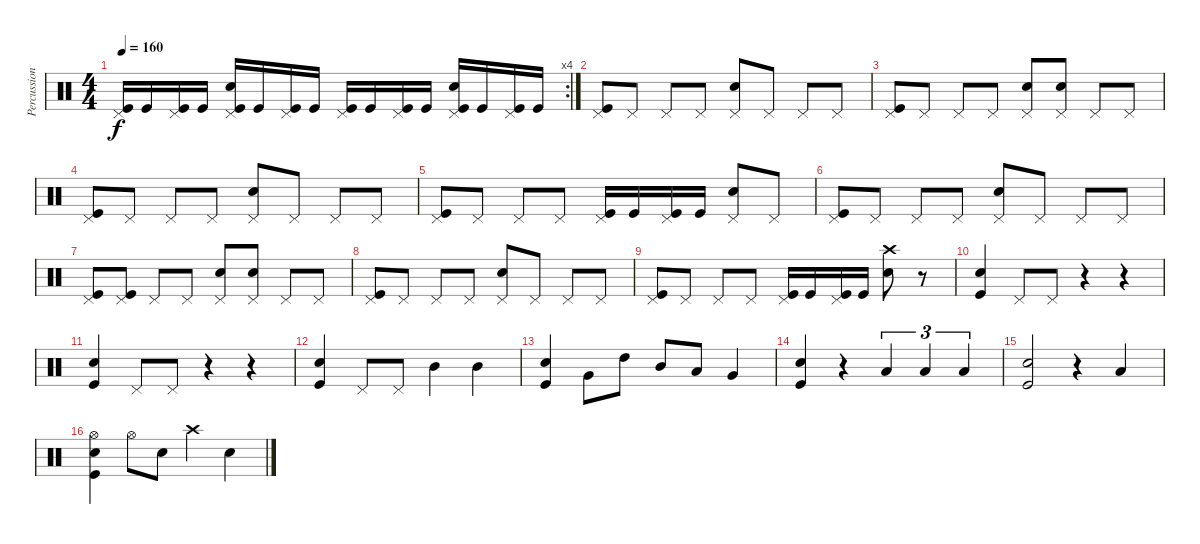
\track ("Percussion" "Percussion") {instrument percussion}
\staff {score}
\articulation defaults
\rc 4
\ts (4 4)
\tempo 160
\clef neutral
\ks c
("Pedal Hi-Hat (hit)" "Kick (hit)").16{dy f} "Kick (hit)".16 ("Pedal Hi-Hat (hit)" "Kick (hit)").16 "Kick (hit)".16 ("Pedal Hi-Hat (hit)" "Electric Snare (hit)" "Kick (hit)").16 "Kick (hit)".16 ("Pedal Hi-Hat (hit)" "Kick (hit)").16 "Kick (hit)".16 ("Pedal Hi-Hat (hit)" "Kick (hit)").16 "Kick (hit)".16 ("Pedal Hi-Hat (hit)" "Kick (hit)").16 "Kick (hit)".16 ("Pedal Hi-Hat (hit)" "Electric Snare (hit)" "Kick (hit)").16 "Kick (hit)".16 ("Pedal Hi-Hat (hit)" "Kick (hit)").16 "Kick (hit)".16 |
("Pedal Hi-Hat (hit)" "Kick (hit)").8 "Pedal Hi-Hat (hit)".8 "Pedal Hi-Hat (hit)".8 "Pedal Hi-Hat (hit)".8 ("Pedal Hi-Hat (hit)" "Electric Snare (hit)").8 "Pedal Hi-Hat (hit)".8 "Pedal Hi-Hat (hit)".8 "Pedal Hi-Hat (hit)".8 |
("Pedal Hi-Hat (hit)" "Kick (hit)").8 "Pedal Hi-Hat (hit)".8 "Pedal Hi-Hat (hit)".8 "Pedal Hi-Hat (hit)".8 ("Pedal Hi-Hat (hit)" "Electric Snare (hit)").8 ("Pedal Hi-Hat (hit)" "Electric Snare (hit)").8 "Pedal Hi-Hat (hit)".8 "Pedal Hi-Hat (hit)".8 |
("Pedal Hi-Hat (hit)" "Kick (hit)").8 "Pedal Hi-Hat (hit)".8 "Pedal Hi-Hat (hit)".8 "Pedal Hi-Hat (hit)".8 ("Pedal Hi-Hat (hit)" "Electric Snare (hit)").8 "Pedal Hi-Hat (hit)".8 "Pedal Hi-Hat (hit)".8 "Pedal Hi-Hat (hit)".8 |
("Pedal Hi-Hat (hit)" "Kick (hit)").8 "Pedal Hi-Hat (hit)".8 "Pedal Hi-Hat (hit)".8 "Pedal Hi-Hat (hit)".8 ("Pedal Hi-Hat (hit)" "Kick (hit)").16 "Kick (hit)".16 ("Pedal Hi-Hat (hit)" "Kick (hit)").16 "Kick (hit)".16 ("Pedal Hi-Hat (hit)" "Electric Snare (hit)").8 "Pedal Hi-Hat (hit)".8 |
("Pedal Hi-Hat (hit)" "Kick (hit)").8 "Pedal Hi-Hat (hit)".8 "Pedal Hi-Hat (hit)".8 "Pedal Hi-Hat (hit)".8 ("Pedal Hi-Hat (hit)" "Electric Snare (hit)").8 "Pedal Hi-Hat (hit)".8 "Pedal Hi-Hat (hit)".8 "Pedal Hi-Hat (hit)".8 |
("Pedal Hi-Hat (hit)" "Kick (hit)").8 ("Pedal Hi-Hat (hit)" "Kick (hit)").8 "Pedal Hi-Hat (hit)".8 "Pedal Hi-Hat (hit)".8 ("Pedal Hi-Hat (hit)" "Electric Snare (hit)").8 ("Pedal Hi-Hat (hit)" "Electric Snare (hit)").8 "Pedal Hi-Hat (hit)".8 "Pedal Hi-Hat (hit)".8 |
("Pedal Hi-Hat (hit)" "Kick (hit)").8 "Pedal Hi-Hat (hit)".8 "Pedal Hi-Hat (hit)".8 "Pedal Hi-Hat (hit)".8 ("Pedal Hi-Hat (hit)" "Electric Snare (hit)").8 "Pedal Hi-Hat (hit)".8 "Pedal Hi-Hat (hit)".8 "Pedal Hi-Hat (hit)".8 |
("Pedal Hi-Hat (hit)" "Kick (hit)").8 "Pedal Hi-Hat (hit)".8 "Pedal Hi-Hat (hit)".8 "Pedal Hi-Hat (hit)".8 ("Pedal Hi-Hat (hit)" "Kick (hit)").16 "Kick (hit)".16 ("Pedal Hi-Hat (hit)" "Kick (hit)").16 "Kick (hit)".16 ("Crash high (hit)" "Electric Snare (hit)").8 r.8 |
("Electric Snare (hit)" "Kick (hit)").4 "Pedal Hi-Hat (hit)".8 "Pedal Hi-Hat (hit)".8 r.4 r.4 |
("Electric Snare (hit)" "Kick (hit)").4 "Pedal Hi-Hat (hit)".8 "Pedal Hi-Hat (hit)".8 r.4 r.4 |
("Electric Snare (hit)" "Kick (hit)").4 "Pedal Hi-Hat (hit)".8 "Pedal Hi-Hat (hit)".8 "Mid Tom (hit)".4 "Mid Tom (hit)".4 |
("Electric Snare (hit)" "Kick (hit)").4 "Very Low Tom (hit)".8 "High Tom (hit)".8 "Mid Tom (hit)".8 "Low Tom (hit)".8 "Very Low Tom (hit)".4 |
("Electric Snare (hit)" "Kick (hit)").4 r.4 "Low Tom (hit)".4{tu (3 2)} "Low Tom (hit)".4{tu (3 2)} "Low Tom (hit)".4{tu (3 2)} |
("Electric Snare (hit)" "Kick (hit)").2 r.4 "Low Tom (hit)".4 |
("Hi-Hat (open)" "Electric Snare (hit)" "Kick (hit)").4 "Hi-Hat (open)".8 "Electric Snare (hit)".8 "Crash high (hit)".4 "Electric Snare (hit)".4
